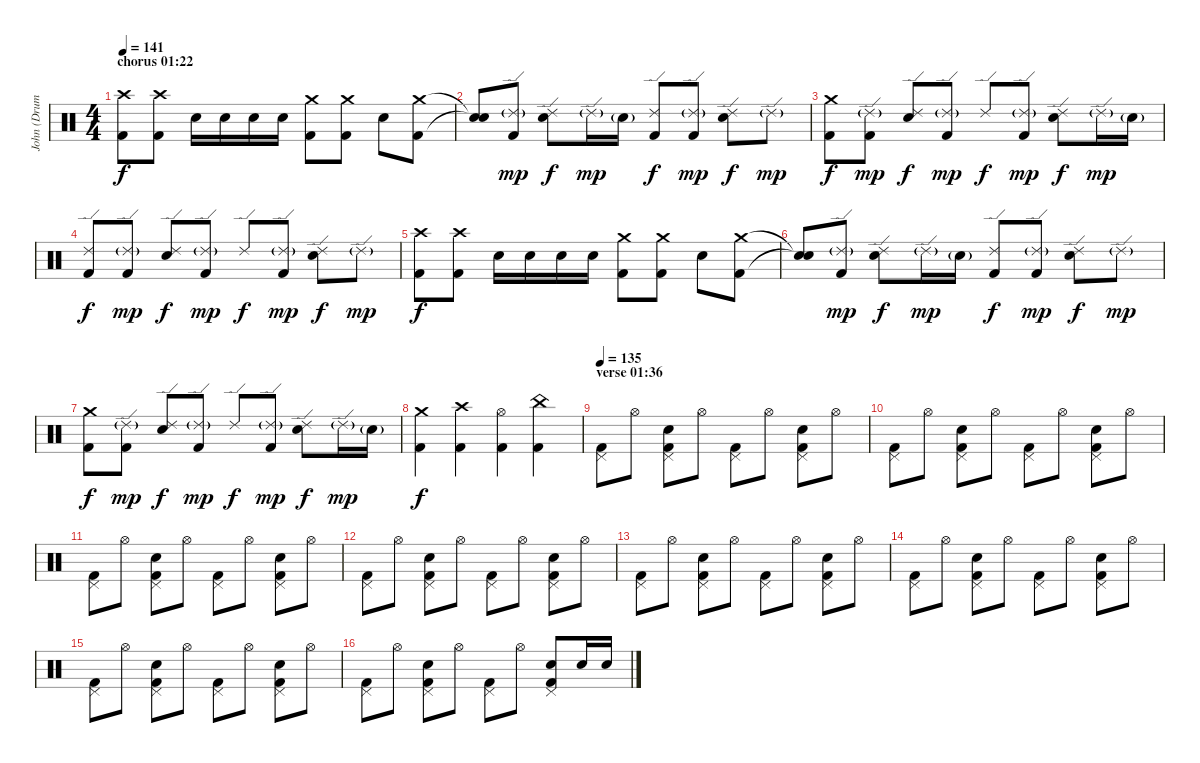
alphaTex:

\track ("John (Drums)" "John (Drum") {instrument percussion}
\staff {score}
\articulation defaults
\ts (4 4)
\section ("" "chorus 01:22")
\tempo 141
\clef neutral
\ks c
("Crash high (hit)" "Kick (hit) 2").8{dy f volume 13} ("Crash high (hit)" "Kick (hit) 2").8 "Snare (hit) 2".16 "Snare (hit) 2".16 "Snare (hit) 2".16 "Snare (hit) 2".16 ("Crash medium (hit)" "Kick (hit) 2").8 ("Crash medium (hit)" "Kick (hit) 2").8 "Snare (hit) 2".8 ("Crash medium (hit)" "Kick (hit) 2").8 |
("Snare (hit)"{t} "Snare (hit)"{t}).8 ("Ride (edge) 2"{g} "Kick (hit) 2").8{dy mp} ("Ride (edge) 2" "Snare (hit) 2").8{dy f} "Ride (edge) 2"{g}.16{dy mp} "Snare (hit) 2"{g}.16 ("Ride (edge) 2" "Kick (hit) 2").8{dy f} ("Ride (edge) 2"{g} "Kick (hit) 2").8{dy mp} ("Ride (edge) 2" "Snare (hit) 2").8{dy f} "Ride (edge) 2"{g}.8{dy mp} |
("Crash medium (hit)" "Kick (hit) 2").8{dy f} ("Ride (edge) 2"{g} "Kick (hit) 2").8{dy mp} ("Ride (edge) 2" "Snare (hit) 2").8{dy f} ("Ride (edge) 2"{g} "Kick (hit) 2").8{dy mp} "Ride (edge) 2".8{dy f} ("Ride (edge) 2"{g} "Kick (hit) 2").8{dy mp} ("Ride (edge) 2" "Snare (hit) 2").8{dy f} "Ride (edge) 2"{g}.16{dy mp} "Snare (hit) 2"{g}.16 |
("Ride (edge) 2" "Kick (hit) 2").8{dy f} ("Ride (edge) 2"{g} "Kick (hit) 2").8{dy mp} ("Ride (edge) 2" "Snare (hit) 2").8{dy f} ("Ride (edge) 2"{g} "Kick (hit) 2").8{dy mp} "Ride (edge) 2".8{dy f} ("Ride (edge) 2"{g} "Kick (hit) 2").8{dy mp} ("Ride (edge) 2" "Snare (hit) 2").8{dy f} "Ride (edge) 2"{g}.8{dy mp} |
("Crash high (hit)" "Kick (hit) 2").8{dy f} ("Crash high (hit)" "Kick (hit) 2").8 "Snare (hit) 2".16 "Snare (hit) 2".16 "Snare (hit) 2".16 "Snare (hit) 2".16 ("Crash medium (hit)" "Kick (hit) 2").8 ("Crash medium (hit)" "Kick (hit) 2").8 "Snare (hit) 2".8 ("Crash medium (hit)" "Kick (hit) 2").8 |
("Snare (hit)"{t} "Snare (hit)"{t}).8 ("Ride (edge) 2"{g} "Kick (hit) 2").8{dy mp} ("Ride (edge) 2" "Snare (hit) 2").8{dy f} "Ride (edge) 2"{g}.16{dy mp} "Snare (hit) 2"{g}.16 ("Ride (edge) 2" "Kick (hit) 2").8{dy f} ("Ride (edge) 2"{g} "Kick (hit) 2").8{dy mp} ("Ride (edge) 2" "Snare (hit) 2").8{dy f} "Ride (edge) 2"{g}.8{dy mp} |
("Crash medium (hit)" "Kick (hit) 2").8{dy f} ("Ride (edge) 2"{g} "Kick (hit) 2").8{dy mp} ("Ride (edge) 2" "Snare (hit) 2").8{dy f} ("Ride (edge) 2"{g} "Kick (hit) 2").8{dy mp} "Ride (edge) 2".8{dy f} ("Ride (edge) 2"{g} "Kick (hit) 2").8{dy mp} ("Ride (edge) 2" "Snare (hit) 2").8{dy f} "Ride (edge) 2"{g}.16{dy mp} "Snare (hit) 2"{g}.16 |
("Crash medium (hit)" "Kick (hit) 2").4{dy f} ("Crash high (hit)" "Kick (hit) 2").4 ("Hi-Hat (open)" "Kick (hit) 2").4 ("China (hit)" "Kick (hit) 2").4 |
\section ("" "verse 01:36")
\tempo 135
("Pedal Hi-Hat (hit)" "Kick (hit) 2").8 "Hi-Hat (open)".8 ("Pedal Hi-Hat (hit)" "Snare (hit) 2" "Kick (hit) 2").8 "Hi-Hat (open)".8 ("Pedal Hi-Hat (hit)" "Kick (hit) 2").8 "Hi-Hat (open)".8 ("Pedal Hi-Hat (hit)" "Snare (hit) 2" "Kick (hit) 2").8 "Hi-Hat (open)".8 |
("Pedal Hi-Hat (hit)" "Kick (hit) 2").8 "Hi-Hat (open)".8 ("Pedal Hi-Hat (hit)" "Snare (hit) 2" "Kick (hit) 2").8 "Hi-Hat (open)".8 ("Pedal Hi-Hat (hit)" "Kick (hit) 2").8 "Hi-Hat (open)".8 ("Pedal Hi-Hat (hit)" "Snare (hit) 2" "Kick (hit) 2").8 "Hi-Hat (open)".8 |
("Pedal Hi-Hat (hit)" "Kick (hit) 2").8 "Hi-Hat (open)".8 ("Pedal Hi-Hat (hit)" "Snare (hit) 2" "Kick (hit) 2").8 "Hi-Hat (open)".8 ("Pedal Hi-Hat (hit)" "Kick (hit) 2").8 "Hi-Hat (open)".8 ("Pedal Hi-Hat (hit)" "Snare (hit) 2" "Kick (hit) 2").8 "Hi-Hat (open)".8 |
("Pedal Hi-Hat (hit)" "Kick (hit) 2").8 "Hi-Hat (open)".8 ("Pedal Hi-Hat (hit)" "Snare (hit) 2" "Kick (hit) 2").8 "Hi-Hat (open)".8 ("Pedal Hi-Hat (hit)" "Kick (hit) 2").8 "Hi-Hat (open)".8 ("Pedal Hi-Hat (hit)" "Snare (hit) 2" "Kick (hit) 2").8 "Hi-Hat (open)".8 |
("Pedal Hi-Hat (hit)" "Kick (hit) 2").8 "Hi-Hat (open)".8 ("Pedal Hi-Hat (hit)" "Snare (hit) 2" "Kick (hit) 2").8 "Hi-Hat (open)".8 ("Pedal Hi-Hat (hit)" "Kick (hit) 2").8 "Hi-Hat (open)".8 ("Pedal Hi-Hat (hit)" "Snare (hit) 2" "Kick (hit) 2").8 "Hi-Hat (open)".8 |
("Pedal Hi-Hat (hit)" "Kick (hit) 2").8 "Hi-Hat (open)".8 ("Pedal Hi-Hat (hit)" "Snare (hit) 2" "Kick (hit) 2").8 "Hi-Hat (open)".8 ("Pedal Hi-Hat (hit)" "Kick (hit) 2").8 "Hi-Hat (open)".8 ("Pedal Hi-Hat (hit)" "Snare (hit) 2" "Kick (hit) 2").8 "Hi-Hat (open)".8 |
("Pedal Hi-Hat (hit)" "Kick (hit) 2").8 "Hi-Hat (open)".8 ("Pedal Hi-Hat (hit)" "Snare (hit) 2" "Kick (hit) 2").8 "Hi-Hat (open)".8 ("Pedal Hi-Hat (hit)" "Kick (hit) 2").8 "Hi-Hat (open)".8 ("Pedal Hi-Hat (hit)" "Snare (hit) 2" "Kick (hit) 2").8 "Hi-Hat (open)".8 |
("Pedal Hi-Hat (hit)" "Kick (hit) 2").8 "Hi-Hat (open)".8 ("Pedal Hi-Hat (hit)" "Snare (hit) 2" "Kick (hit) 2").8 "Hi-Hat (open)".8 ("Pedal Hi-Hat (hit)" "Kick (hit) 2").8 "Hi-Hat (open)".8 ("Pedal Hi-Hat (hit)" "Snare (hit) 2" "Kick (hit) 2").8 "Snare (hit) 2".16 "Snare (hit) 2".16
